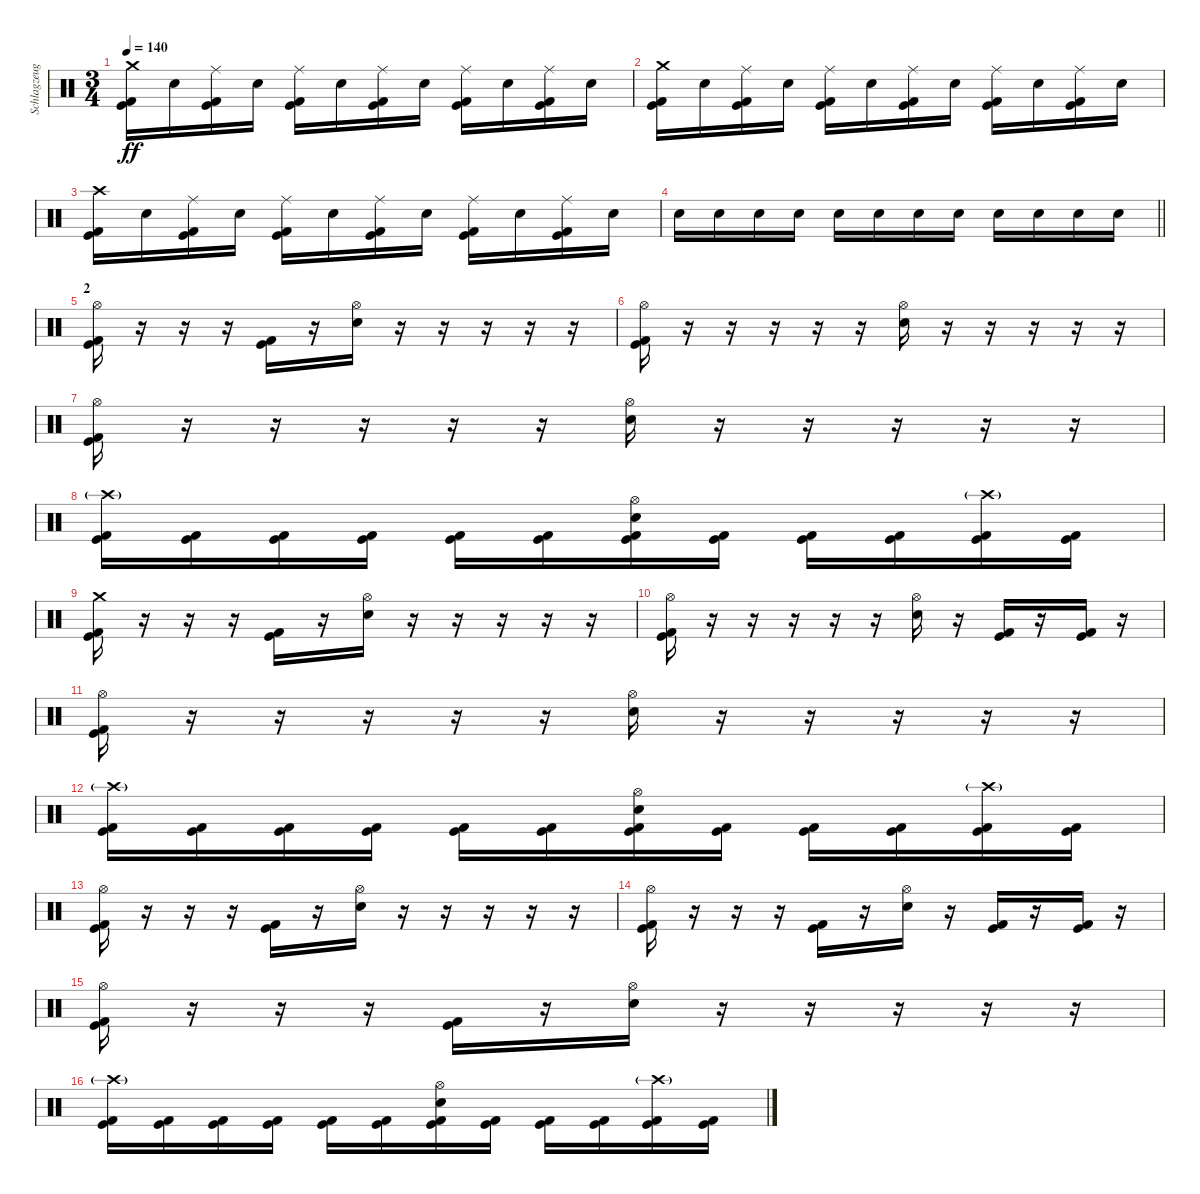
\track ("Schlagzeug" "Schlagzeug") {instrument percussion}
\staff {score}
\articulation defaults
\ts (3 4)
\tempo 140
\clef neutral
\ks c
("Crash medium (hit)" "Kick (hit)" "Kick (hit) 2").16{dy ff} "Electric Snare (hit)".16 ("Ride (middle)" "Kick (hit)" "Kick (hit) 2").16 "Electric Snare (hit)".16 ("Ride (middle)" "Kick (hit)" "Kick (hit) 2").16 "Electric Snare (hit)".16 ("Ride (middle)" "Kick (hit)" "Kick (hit) 2").16 "Electric Snare (hit)".16 ("Ride (middle)" "Kick (hit)" "Kick (hit) 2").16 "Electric Snare (hit)".16 ("Ride (middle)" "Kick (hit)" "Kick (hit) 2").16 "Electric Snare (hit)".16 |
("Crash medium (hit)" "Kick (hit)" "Kick (hit) 2").16 "Electric Snare (hit)".16 ("Ride (middle)" "Kick (hit)" "Kick (hit) 2").16 "Electric Snare (hit)".16 ("Ride (middle)" "Kick (hit)" "Kick (hit) 2").16 "Electric Snare (hit)".16 ("Ride (middle)" "Kick (hit)" "Kick (hit) 2").16 "Electric Snare (hit)".16 ("Ride (middle)" "Kick (hit)" "Kick (hit) 2").16 "Electric Snare (hit)".16 ("Ride (middle)" "Kick (hit)" "Kick (hit) 2").16 "Electric Snare (hit)".16 |
("Crash high (hit)" "Kick (hit)" "Kick (hit) 2").16 "Electric Snare (hit)".16 ("Ride (middle)" "Kick (hit)" "Kick (hit) 2").16 "Electric Snare (hit)".16 ("Ride (middle)" "Kick (hit)" "Kick (hit) 2").16 "Electric Snare (hit)".16 ("Ride (middle)" "Kick (hit)" "Kick (hit) 2").16 "Electric Snare (hit)".16 ("Ride (middle)" "Kick (hit)" "Kick (hit) 2").16 "Electric Snare (hit)".16 ("Ride (middle)" "Kick (hit)" "Kick (hit) 2").16 "Electric Snare (hit)".16 |
\barLineRight lightlight "Electric Snare (hit)".16 "Electric Snare (hit)".16 "Electric Snare (hit)".16 "Electric Snare (hit)".16 "Electric Snare (hit)".16 "Electric Snare (hit)".16 "Electric Snare (hit)".16 "Electric Snare (hit)".16 "Electric Snare (hit)".16 "Electric Snare (hit)".16 "Electric Snare (hit)".16 "Electric Snare (hit)".16
|
\section ("" "2")
("Hi-Hat (open)" "Kick (hit)" "Kick (hit) 2").16 r.16 r.16 r.16 ("Kick (hit)" "Kick (hit) 2").16 r.16 ("Hi-Hat (open)" "Electric Snare (hit)").16 r.16 r.16 r.16 r.16 r.16 |
("Hi-Hat (open)" "Kick (hit)" "Kick (hit) 2").16 r.16 r.16 r.16 r.16 r.16 ("Hi-Hat (open)" "Electric Snare (hit)").16 r.16 r.16 r.16 r.16 r.16 |
("Hi-Hat (open)" "Kick (hit)" "Kick (hit) 2").16 r.16 r.16 r.16 r.16 r.16 ("Hi-Hat (open)" "Electric Snare (hit)").16 r.16 r.16 r.16 r.16 r.16 |
("Crash high (hit)"{g} "Kick (hit)" "Kick (hit) 2").16 ("Kick (hit)" "Kick (hit) 2").16 ("Kick (hit)" "Kick (hit) 2").16 ("Kick (hit)" "Kick (hit) 2").16 ("Kick (hit)" "Kick (hit) 2").16 ("Kick (hit)" "Kick (hit) 2").16 ("Hi-Hat (open)" "Kick (hit)" "Kick (hit) 2" "Electric Snare (hit)").16 ("Kick (hit)" "Kick (hit) 2").16 ("Kick (hit)" "Kick (hit) 2").16 ("Kick (hit)" "Kick (hit) 2").16 ("Crash high (hit)"{g} "Kick (hit)" "Kick (hit) 2").16 ("Kick (hit)" "Kick (hit) 2").16 |
("Crash medium (hit)" "Kick (hit)" "Kick (hit) 2").16 r.16 r.16 r.16 ("Kick (hit)" "Kick (hit) 2").16 r.16 ("Hi-Hat (open)" "Electric Snare (hit)").16 r.16 r.16 r.16 r.16 r.16 |
("Hi-Hat (open)" "Kick (hit)" "Kick (hit) 2").16 r.16 r.16 r.16 r.16 r.16 ("Hi-Hat (open)" "Electric Snare (hit)").16 r.16 ("Kick (hit)" "Kick (hit) 2").16 r.16 ("Kick (hit)" "Kick (hit) 2").16 r.16 |
("Hi-Hat (open)" "Kick (hit)" "Kick (hit) 2").16 r.16 r.16 r.16 r.16 r.16 ("Hi-Hat (open)" "Electric Snare (hit)").16 r.16 r.16 r.16 r.16 r.16 |
("Crash high (hit)"{g} "Kick (hit)" "Kick (hit) 2").16 ("Kick (hit)" "Kick (hit) 2").16 ("Kick (hit)" "Kick (hit) 2").16 ("Kick (hit)" "Kick (hit) 2").16 ("Kick (hit)" "Kick (hit) 2").16 ("Kick (hit)" "Kick (hit) 2").16 ("Hi-Hat (open)" "Kick (hit)" "Kick (hit) 2" "Electric Snare (hit)").16 ("Kick (hit)" "Kick (hit) 2").16 ("Kick (hit)" "Kick (hit) 2").16 ("Kick (hit)" "Kick (hit) 2").16 ("Crash high (hit)"{g} "Kick (hit)" "Kick (hit) 2").16 ("Kick (hit)" "Kick (hit) 2").16 |
("Hi-Hat (open)" "Kick (hit)" "Kick (hit) 2").16 r.16 r.16 r.16 ("Kick (hit)" "Kick (hit) 2").16 r.16 ("Hi-Hat (open)" "Electric Snare (hit)").16 r.16 r.16 r.16 r.16 r.16 |
("Hi-Hat (open)" "Kick (hit)" "Kick (hit) 2").16 r.16 r.16 r.16 ("Kick (hit)" "Kick (hit) 2").16 r.16 ("Hi-Hat (open)" "Electric Snare (hit)").16 r.16 ("Kick (hit)" "Kick (hit) 2").16 r.16 ("Kick (hit)" "Kick (hit) 2").16 r.16 |
("Hi-Hat (open)" "Kick (hit)" "Kick (hit) 2").16 r.16 r.16 r.16 ("Kick (hit)" "Kick (hit) 2").16 r.16 ("Hi-Hat (open)" "Electric Snare (hit)").16 r.16 r.16 r.16 r.16 r.16 |
("Crash high (hit)"{g} "Kick (hit)" "Kick (hit) 2").16 ("Kick (hit)" "Kick (hit) 2").16 ("Kick (hit)" "Kick (hit) 2").16 ("Kick (hit)" "Kick (hit) 2").16 ("Kick (hit)" "Kick (hit) 2").16 ("Kick (hit)" "Kick (hit) 2").16 ("Hi-Hat (open)" "Kick (hit)" "Kick (hit) 2" "Electric Snare (hit)").16 ("Kick (hit)" "Kick (hit) 2").16 ("Kick (hit)" "Kick (hit) 2").16 ("Kick (hit)" "Kick (hit) 2").16 ("Crash high (hit)"{g} "Kick (hit)" "Kick (hit) 2").16 ("Kick (hit)" "Kick (hit) 2").16
